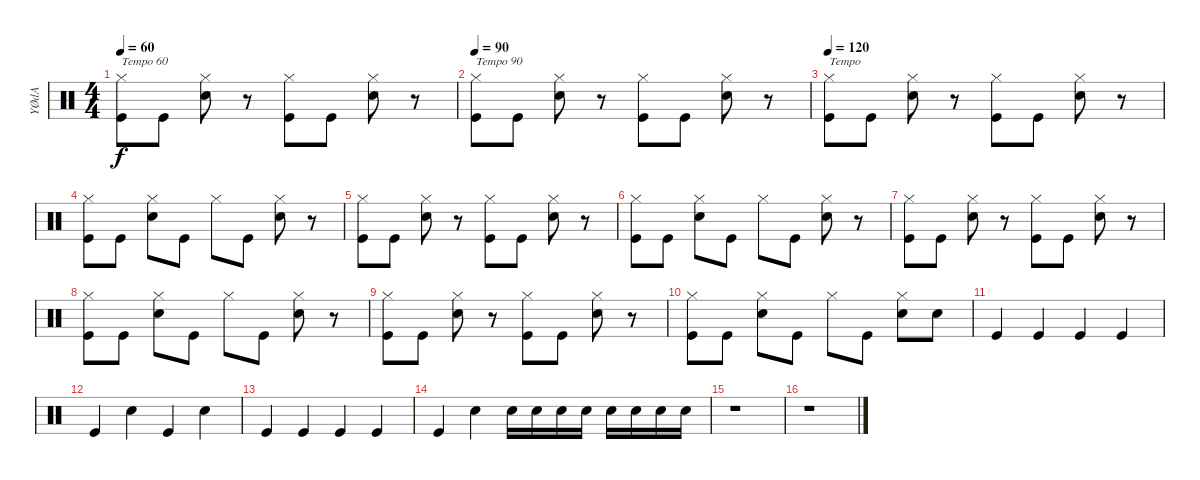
\track ("YØdA" "YØdA") {instrument percussion}
\staff {score}
\articulation defaults
\ts (4 4)
\tempo 60
\clef neutral
\ks c
("Hi-Hat (closed)" "Kick (hit)").8{txt "Tempo 60" dy f} "Kick (hit)".8 ("Hi-Hat (closed)" "Electric Snare (hit)").8 r.8 ("Hi-Hat (closed)" "Kick (hit)").8 "Kick (hit)".8 ("Hi-Hat (closed)" "Electric Snare (hit)").8 r.8 |
\tempo 90
("Hi-Hat (closed)" "Kick (hit)").8{txt "Tempo 90"} "Kick (hit)".8 ("Hi-Hat (closed)" "Electric Snare (hit)").8 r.8 ("Hi-Hat (closed)" "Kick (hit)").8 "Kick (hit)".8 ("Hi-Hat (closed)" "Electric Snare (hit)").8 r.8 |
\tempo 120
("Hi-Hat (closed)" "Kick (hit)").8{txt "Tempo"} "Kick (hit)".8 ("Hi-Hat (closed)" "Electric Snare (hit)").8 r.8 ("Hi-Hat (closed)" "Kick (hit)").8 "Kick (hit)".8 ("Hi-Hat (closed)" "Electric Snare (hit)").8 r.8 |
("Hi-Hat (closed)" "Kick (hit)").8 "Kick (hit)".8 ("Hi-Hat (closed)" "Electric Snare (hit)").8 "Kick (hit)".8 "Hi-Hat (closed)".8 "Kick (hit)".8 ("Hi-Hat (closed)" "Electric Snare (hit)").8 r.8 |
("Hi-Hat (closed)" "Kick (hit)").8 "Kick (hit)".8 ("Hi-Hat (closed)" "Electric Snare (hit)").8 r.8 ("Hi-Hat (closed)" "Kick (hit)").8 "Kick (hit)".8 ("Hi-Hat (closed)" "Electric Snare (hit)").8 r.8 |
("Hi-Hat (closed)" "Kick (hit)").8 "Kick (hit)".8 ("Hi-Hat (closed)" "Electric Snare (hit)").8 "Kick (hit)".8 "Hi-Hat (closed)".8 "Kick (hit)".8 ("Hi-Hat (closed)" "Electric Snare (hit)").8 r.8 |
("Hi-Hat (closed)" "Kick (hit)").8 "Kick (hit)".8 ("Hi-Hat (closed)" "Electric Snare (hit)").8 r.8 ("Hi-Hat (closed)" "Kick (hit)").8 "Kick (hit)".8 ("Hi-Hat (closed)" "Electric Snare (hit)").8 r.8 |
("Hi-Hat (closed)" "Kick (hit)").8 "Kick (hit)".8 ("Hi-Hat (closed)" "Electric Snare (hit)").8 "Kick (hit)".8 "Hi-Hat (closed)".8 "Kick (hit)".8 ("Hi-Hat (closed)" "Electric Snare (hit)").8 r.8 |
("Hi-Hat (closed)" "Kick (hit)").8 "Kick (hit)".8 ("Hi-Hat (closed)" "Electric Snare (hit)").8 r.8 ("Hi-Hat (closed)" "Kick (hit)").8 "Kick (hit)".8 ("Hi-Hat (closed)" "Electric Snare (hit)").8 r.8 |
("Hi-Hat (closed)" "Kick (hit)").8 "Kick (hit)".8 ("Hi-Hat (closed)" "Electric Snare (hit)").8 "Kick (hit)".8 "Hi-Hat (closed)".8 "Kick (hit)".8 ("Hi-Hat (closed)" "Electric Snare (hit)").8 "Electric Snare (hit)".8 |
"Kick (hit)".4 "Kick (hit)".4 "Kick (hit)".4 "Kick (hit)".4 |
"Kick (hit)".4 "Electric Snare (hit)".4 "Kick (hit)".4 "Electric Snare (hit)".4 |
"Kick (hit)".4 "Kick (hit)".4 "Kick (hit)".4 "Kick (hit)".4 |
"Kick (hit)".4 "Electric Snare (hit)".4 "Electric Snare (hit)".16 "Electric Snare (hit)".16 "Electric Snare (hit)".16 "Electric Snare (hit)".16 "Electric Snare (hit)".16 "Electric Snare (hit)".16 "Electric Snare (hit)".16 "Electric Snare (hit)".16 |
r.1 |
r.1
